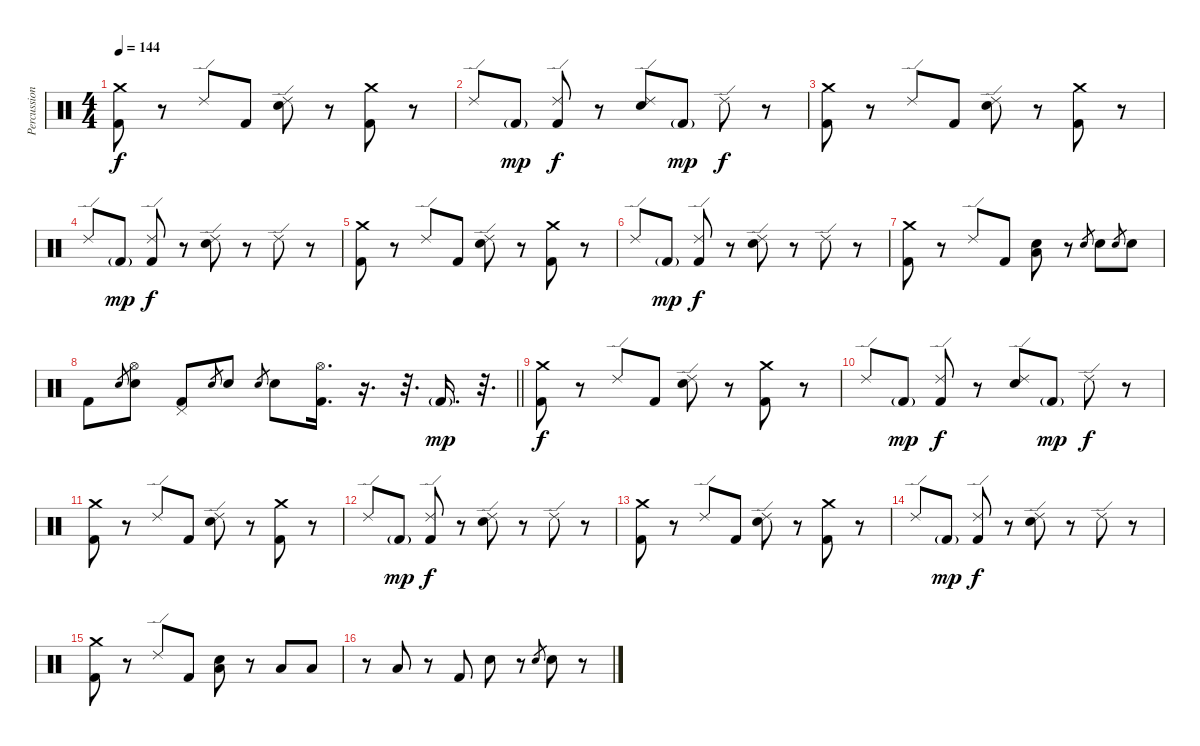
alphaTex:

\track ("Percussion" "Percussion") {instrument percussion}
\staff {score}
\articulation defaults
\ts (4 4)
\tempo 144
\clef neutral
\ks c
("Crash medium (hit)" "Kick (hit) 2").8{dy f} r.8 "Ride (edge) 2".8 "Kick (hit) 2".8 ("Ride (edge) 2" "Electric Snare (hit)").8 r.8 ("Crash medium (hit)" "Kick (hit) 2").8 r.8 |
"Ride (edge) 2".8 "Kick (hit) 2"{g}.8{dy mp} ("Ride (edge) 2" "Kick (hit) 2").8{dy f} r.8 ("Ride (edge) 2" "Electric Snare (hit)").8 "Kick (hit) 2"{g}.8{dy mp} "Ride (edge) 2".8{dy f} r.8 |
("Crash medium (hit)" "Kick (hit) 2").8 r.8 "Ride (edge) 2".8 "Kick (hit) 2".8 ("Ride (edge) 2" "Electric Snare (hit)").8 r.8 ("Crash medium (hit)" "Kick (hit) 2").8 r.8 |
"Ride (edge) 2".8 "Kick (hit) 2"{g}.8{dy mp} ("Ride (edge) 2" "Kick (hit) 2").8{dy f} r.8 ("Ride (edge) 2" "Electric Snare (hit)").8 r.8 "Ride (edge) 2".8 r.8 |
("Crash medium (hit)" "Kick (hit) 2").8 r.8 "Ride (edge) 2".8 "Kick (hit) 2".8 ("Ride (edge) 2" "Electric Snare (hit)").8 r.8 ("Crash medium (hit)" "Kick (hit) 2").8 r.8 |
"Ride (edge) 2".8 "Kick (hit) 2"{g}.8{dy mp} ("Ride (edge) 2" "Kick (hit) 2").8{dy f} r.8 ("Ride (edge) 2" "Electric Snare (hit)").8 r.8 "Ride (edge) 2".8 r.8 |
("Crash medium (hit)" "Kick (hit) 2").8 r.8 "Ride (edge) 2".8 "Kick (hit) 2".8 ("Low Floor Tom (hit)" "Electric Snare (hit)").8 r.8 "Electric Snare (hit)".8{gr} "Electric Snare (hit)".8 "Electric Snare (hit)".8{gr} "Electric Snare (hit)".8 |
\barLineRight lightlight "Kick (hit) 2".8 "Electric Snare (hit)".8{gr}
("Hi-Hat (open)" "Electric Snare (hit)").8 ("Pedal Hi-Hat (hit)" "Kick (hit) 2").8 "Electric Snare (hit)".8{gr} "Electric Snare (hit)".8 "Electric Snare (hit)".8{gr} "Electric Snare (hit)".8 ("Hi-Hat (open)" "Kick (hit) 2").16{d} r.16{d} r.32{d} "Kick (hit) 2"{g}.16{d dy mp} r.32{d} |
\section ("" "")
("Crash medium (hit)" "Kick (hit) 2").8{dy f} r.8 "Ride (edge) 2".8 "Kick (hit) 2".8 ("Ride (edge) 2" "Electric Snare (hit)").8 r.8 ("Crash medium (hit)" "Kick (hit) 2").8 r.8 |
"Ride (edge) 2".8 "Kick (hit) 2"{g}.8{dy mp} ("Ride (edge) 2" "Kick (hit) 2").8{dy f} r.8 ("Ride (edge) 2" "Electric Snare (hit)").8 "Kick (hit) 2"{g}.8{dy mp} "Ride (edge) 2".8{dy f} r.8 |
("Crash medium (hit)" "Kick (hit) 2").8 r.8 "Ride (edge) 2".8 "Kick (hit) 2".8 ("Ride (edge) 2" "Electric Snare (hit)").8 r.8 ("Crash medium (hit)" "Kick (hit) 2").8 r.8 |
"Ride (edge) 2".8 "Kick (hit) 2"{g}.8{dy mp} ("Ride (edge) 2" "Kick (hit) 2").8{dy f} r.8 ("Ride (edge) 2" "Electric Snare (hit)").8 r.8 "Ride (edge) 2".8 r.8 |
("Crash medium (hit)" "Kick (hit) 2").8 r.8 "Ride (edge) 2".8 "Kick (hit) 2".8 ("Ride (edge) 2" "Electric Snare (hit)").8 r.8 ("Crash medium (hit)" "Kick (hit) 2").8 r.8 |
"Ride (edge) 2".8 "Kick (hit) 2"{g}.8{dy mp} ("Ride (edge) 2" "Kick (hit) 2").8{dy f} r.8 ("Ride (edge) 2" "Electric Snare (hit)").8 r.8 "Ride (edge) 2".8 r.8 |
("Crash medium (hit)" "Kick (hit) 2").8 r.8 "Ride (edge) 2".8 "Kick (hit) 2".8 ("Low Floor Tom (hit)" "Electric Snare (hit)").8 r.8 "Low Tom (hit)".8 "Low Tom (hit)".8 |
r.8 "Low Tom (hit)".8 r.8 "Kick (hit) 2".8 "Electric Snare (hit)".8 r.8 "Electric Snare (hit)".8{gr} "Electric Snare (hit)".8 r.8
